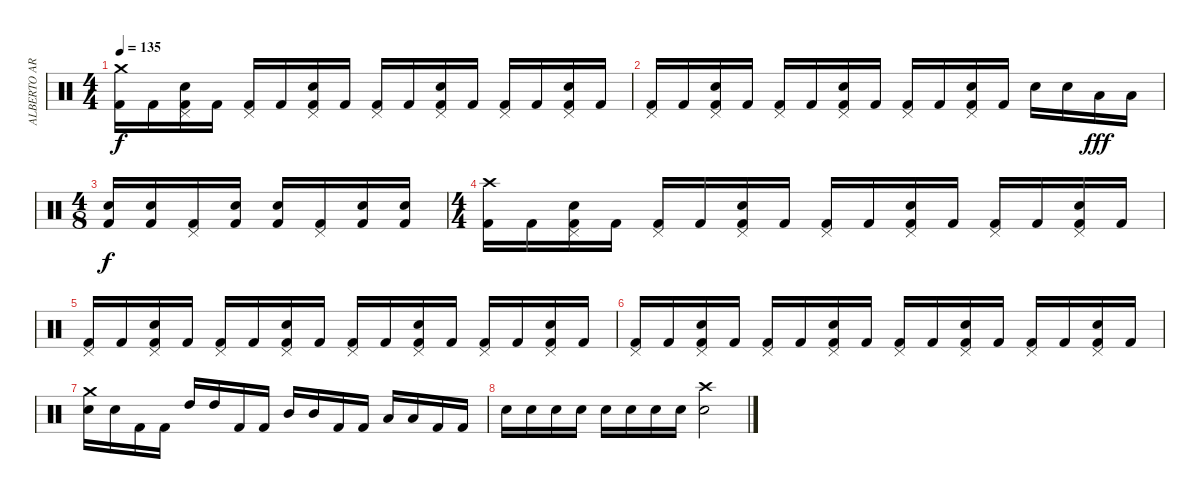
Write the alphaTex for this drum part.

\track ("ALBERTO ARDINES" "ALBERTO AR") {instrument percussion}
\staff {score}
\articulation defaults
\ts (4 4)
\tempo 135
\clef neutral
\ks c
("Crash medium (hit)" "Kick (hit) 2").16{dy f} "Kick (hit) 2".16 ("Pedal Hi-Hat (hit)" "Electric Snare (hit)" "Kick (hit) 2").16 "Kick (hit) 2".16 ("Pedal Hi-Hat (hit)" "Kick (hit) 2").16 "Kick (hit) 2".16 ("Pedal Hi-Hat (hit)" "Electric Snare (hit)" "Kick (hit) 2").16 "Kick (hit) 2".16 ("Pedal Hi-Hat (hit)" "Kick (hit) 2").16 "Kick (hit) 2".16 ("Pedal Hi-Hat (hit)" "Electric Snare (hit)" "Kick (hit) 2").16 "Kick (hit) 2".16 ("Pedal Hi-Hat (hit)" "Kick (hit) 2").16 "Kick (hit) 2".16 ("Pedal Hi-Hat (hit)" "Electric Snare (hit)" "Kick (hit) 2").16 "Kick (hit) 2".16 |
("Pedal Hi-Hat (hit)" "Kick (hit) 2").16 "Kick (hit) 2".16 ("Pedal Hi-Hat (hit)" "Electric Snare (hit)" "Kick (hit) 2").16 "Kick (hit) 2".16 ("Pedal Hi-Hat (hit)" "Kick (hit) 2").16 "Kick (hit) 2".16 ("Pedal Hi-Hat (hit)" "Electric Snare (hit)" "Kick (hit) 2").16 "Kick (hit) 2".16 ("Pedal Hi-Hat (hit)" "Kick (hit) 2").16 "Kick (hit) 2".16 ("Pedal Hi-Hat (hit)" "Electric Snare (hit)" "Kick (hit) 2").16 "Kick (hit) 2".16 "Electric Snare (hit)".16 "Electric Snare (hit)".16 "Low Tom (hit)".16{dy fff} "Low Tom (hit)".16 |
\ts (4 8)
("Electric Snare (hit)" "Kick (hit) 2").16{dy f} ("Electric Snare (hit)" "Kick (hit) 2").16 ("Pedal Hi-Hat (hit)" "Kick (hit) 2").16 ("Electric Snare (hit)" "Kick (hit) 2").16 ("Electric Snare (hit)" "Kick (hit) 2").16 ("Pedal Hi-Hat (hit)" "Kick (hit) 2").16 ("Electric Snare (hit)" "Kick (hit) 2").16 ("Electric Snare (hit)" "Kick (hit) 2").16 |
\ts (4 4)
("Crash high (hit)" "Kick (hit) 2").16 "Kick (hit) 2".16 ("Pedal Hi-Hat (hit)" "Electric Snare (hit)" "Kick (hit) 2").16 "Kick (hit) 2".16 ("Pedal Hi-Hat (hit)" "Kick (hit) 2").16 "Kick (hit) 2".16 ("Pedal Hi-Hat (hit)" "Electric Snare (hit)" "Kick (hit) 2").16 "Kick (hit) 2".16 ("Pedal Hi-Hat (hit)" "Kick (hit) 2").16 "Kick (hit) 2".16 ("Pedal Hi-Hat (hit)" "Electric Snare (hit)" "Kick (hit) 2").16 "Kick (hit) 2".16 ("Pedal Hi-Hat (hit)" "Kick (hit) 2").16 "Kick (hit) 2".16 ("Pedal Hi-Hat (hit)" "Electric Snare (hit)" "Kick (hit) 2").16 "Kick (hit) 2".16 |
("Pedal Hi-Hat (hit)" "Kick (hit) 2").16 "Kick (hit) 2".16 ("Pedal Hi-Hat (hit)" "Electric Snare (hit)" "Kick (hit) 2").16 "Kick (hit) 2".16 ("Pedal Hi-Hat (hit)" "Kick (hit) 2").16 "Kick (hit) 2".16 ("Pedal Hi-Hat (hit)" "Electric Snare (hit)" "Kick (hit) 2").16 "Kick (hit) 2".16 ("Pedal Hi-Hat (hit)" "Kick (hit) 2").16 "Kick (hit) 2".16 ("Pedal Hi-Hat (hit)" "Electric Snare (hit)" "Kick (hit) 2").16 "Kick (hit) 2".16 ("Pedal Hi-Hat (hit)" "Kick (hit) 2").16 "Kick (hit) 2".16 ("Pedal Hi-Hat (hit)" "Electric Snare (hit)" "Kick (hit) 2").16 "Kick (hit) 2".16 |
("Pedal Hi-Hat (hit)" "Kick (hit) 2").16 "Kick (hit) 2".16 ("Pedal Hi-Hat (hit)" "Electric Snare (hit)" "Kick (hit) 2").16 "Kick (hit) 2".16 ("Pedal Hi-Hat (hit)" "Kick (hit) 2").16 "Kick (hit) 2".16 ("Pedal Hi-Hat (hit)" "Electric Snare (hit)" "Kick (hit) 2").16 "Kick (hit) 2".16 ("Pedal Hi-Hat (hit)" "Kick (hit) 2").16 "Kick (hit) 2".16 ("Pedal Hi-Hat (hit)" "Electric Snare (hit)" "Kick (hit) 2").16 "Kick (hit) 2".16 ("Pedal Hi-Hat (hit)" "Kick (hit) 2").16 "Kick (hit) 2".16 ("Pedal Hi-Hat (hit)" "Electric Snare (hit)" "Kick (hit) 2").16 "Kick (hit) 2".16 |
("Crash medium (hit)" "Electric Snare (hit)").16 "Electric Snare (hit)".16 "Kick (hit) 2".16 "Kick (hit) 2".16 "High Tom (hit)".16 "High Tom (hit)".16 "Kick (hit) 2".16 "Kick (hit) 2".16 "Mid Tom (hit)".16 "Mid Tom (hit)".16 "Kick (hit) 2".16 "Kick (hit) 2".16 "Low Tom (hit)".16 "Low Tom (hit)".16 "Kick (hit) 2".16 "Kick (hit) 2".16 |
"Electric Snare (hit)".16 "Electric Snare (hit)".16 "Electric Snare (hit)".16 "Electric Snare (hit)".16 "Electric Snare (hit)".16 "Electric Snare (hit)".16 "Electric Snare (hit)".16 "Electric Snare (hit)".16 ("Crash high (hit)" "Electric Snare (hit)").2
